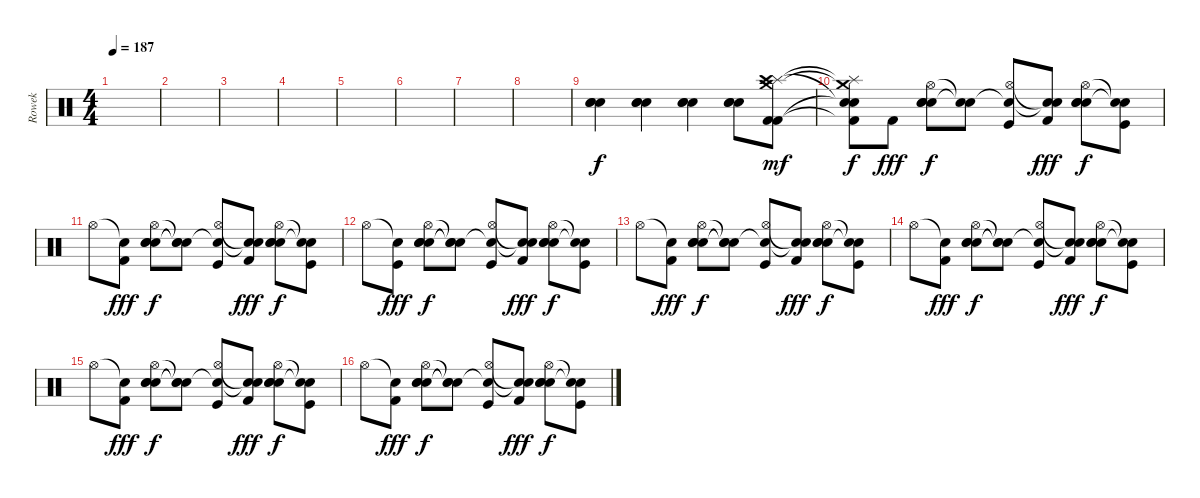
\track ("Rowek" "Rowek") {instrument percussion}
\staff {score}
\articulation defaults
\ts (4 4)
\tempo 187
\clef neutral
\ks c
|
|
|
|
|
|
|
|
("Electric Snare (hit)" "Electric Snare (hit)" "Electric Snare (hit)").4 ("Electric Snare (hit)" "Electric Snare (hit)" "Electric Snare (hit)").4 ("Electric Snare (hit)" "Electric Snare (hit)" "Electric Snare (hit)").4 ("Electric Snare (hit)" "Electric Snare (hit)" "Electric Snare (hit)").8 ("Crash medium (hit)" "Splash (hit)" "Crash high (hit)" "Kick (hit) 2" "Kick (hit) 2").8{dy mf} |
("Crash medium (hit)"{t} "Splash (hit)"{t} "Snare (hit)"{t} "Snare (hit)"{t} "Kick (hit) 2"{t}).8{dy f} "Kick (hit) 2".8{dy fff} ("Hi-Hat (open)" "Electric Snare (hit)" "Electric Snare (hit)" "Electric Snare (hit)").8{dy f} ("Snare (hit)"{t} "Snare (hit)"{t}).8 ("Hi-Hat (open)" "Snare (hit)"{t} "Kick (hit)").8 ("Snare (hit)"{t} "Snare (hit)"{t} "Kick (hit) 2").8{dy fff} ("Hi-Hat (open)" "Electric Snare (hit)" "Electric Snare (hit)" "Electric Snare (hit)").8{dy f} ("Snare (hit)"{t} "Snare (hit)"{t} "Kick (hit)").8 |
"Hi-Hat (open)".8 ("Snare (hit)"{t} "Kick (hit) 2").8{dy fff} ("Hi-Hat (open)" "Electric Snare (hit)" "Electric Snare (hit)" "Electric Snare (hit)").8{dy f} ("Snare (hit)"{t} "Snare (hit)"{t} "Snare (hit)"{t}).8 ("Hi-Hat (open)" "Snare (hit)"{t} "Kick (hit)").8 ("Snare (hit)"{t} "Snare (hit)"{t} "Kick (hit) 2").8{dy fff} ("Hi-Hat (open)" "Electric Snare (hit)" "Electric Snare (hit)" "Electric Snare (hit)").8{dy f} ("Snare (hit)"{t} "Snare (hit)"{t} "Kick (hit)").8 |
"Hi-Hat (open)".8 ("Snare (hit)"{t} "Kick (hit)").8{dy fff} ("Hi-Hat (open)" "Electric Snare (hit)" "Electric Snare (hit)" "Electric Snare (hit)").8{dy f} ("Snare (hit)"{t} "Snare (hit)"{t} "Snare (hit)"{t}).8 ("Hi-Hat (open)" "Snare (hit)"{t} "Kick (hit)").8 ("Snare (hit)"{t} "Snare (hit)"{t} "Kick (hit) 2").8{dy fff} ("Hi-Hat (open)" "Electric Snare (hit)" "Electric Snare (hit)" "Electric Snare (hit)").8{dy f} ("Snare (hit)"{t} "Snare (hit)"{t} "Kick (hit)").8 |
"Hi-Hat (open)".8 ("Snare (hit)"{t} "Kick (hit) 2").8{dy fff} ("Hi-Hat (open)" "Electric Snare (hit)" "Electric Snare (hit)" "Electric Snare (hit)").8{dy f} ("Snare (hit)"{t} "Snare (hit)"{t} "Snare (hit)"{t}).8 ("Hi-Hat (open)" "Snare (hit)"{t} "Kick (hit)").8 ("Snare (hit)"{t} "Snare (hit)"{t} "Kick (hit) 2").8{dy fff} ("Hi-Hat (open)" "Electric Snare (hit)" "Electric Snare (hit)" "Electric Snare (hit)").8{dy f} ("Snare (hit)"{t} "Snare (hit)"{t} "Kick (hit)").8 |
"Hi-Hat (open)".8 ("Snare (hit)"{t} "Kick (hit) 2").8{dy fff} ("Hi-Hat (open)" "Electric Snare (hit)" "Electric Snare (hit)" "Electric Snare (hit)").8{dy f} ("Snare (hit)"{t} "Snare (hit)"{t} "Snare (hit)"{t}).8 ("Hi-Hat (open)" "Snare (hit)"{t} "Kick (hit)").8 ("Snare (hit)"{t} "Snare (hit)"{t} "Kick (hit) 2").8{dy fff} ("Hi-Hat (open)" "Electric Snare (hit)" "Electric Snare (hit)" "Electric Snare (hit)").8{dy f} ("Snare (hit)"{t} "Snare (hit)"{t} "Kick (hit)").8 |
"Hi-Hat (open)".8 ("Snare (hit)"{t} "Kick (hit) 2").8{dy fff} ("Hi-Hat (open)" "Electric Snare (hit)" "Electric Snare (hit)" "Electric Snare (hit)").8{dy f} ("Snare (hit)"{t} "Snare (hit)"{t} "Snare (hit)"{t}).8 ("Hi-Hat (open)" "Snare (hit)"{t} "Kick (hit)").8 ("Snare (hit)"{t} "Snare (hit)"{t} "Kick (hit) 2").8{dy fff} ("Hi-Hat (open)" "Electric Snare (hit)" "Electric Snare (hit)" "Electric Snare (hit)").8{dy f} ("Snare (hit)"{t} "Snare (hit)"{t} "Kick (hit)").8 |
"Hi-Hat (open)".8 ("Snare (hit)"{t} "Kick (hit) 2").8{dy fff} ("Hi-Hat (open)" "Electric Snare (hit)" "Electric Snare (hit)" "Electric Snare (hit)").8{dy f} ("Snare (hit)"{t} "Snare (hit)"{t} "Snare (hit)"{t}).8 ("Hi-Hat (open)" "Snare (hit)"{t} "Kick (hit)").8 ("Snare (hit)"{t} "Snare (hit)"{t} "Kick (hit) 2").8{dy fff} ("Hi-Hat (open)" "Electric Snare (hit)" "Electric Snare (hit)" "Electric Snare (hit)").8{dy f} ("Snare (hit)"{t} "Snare (hit)"{t} "Kick (hit)").8
